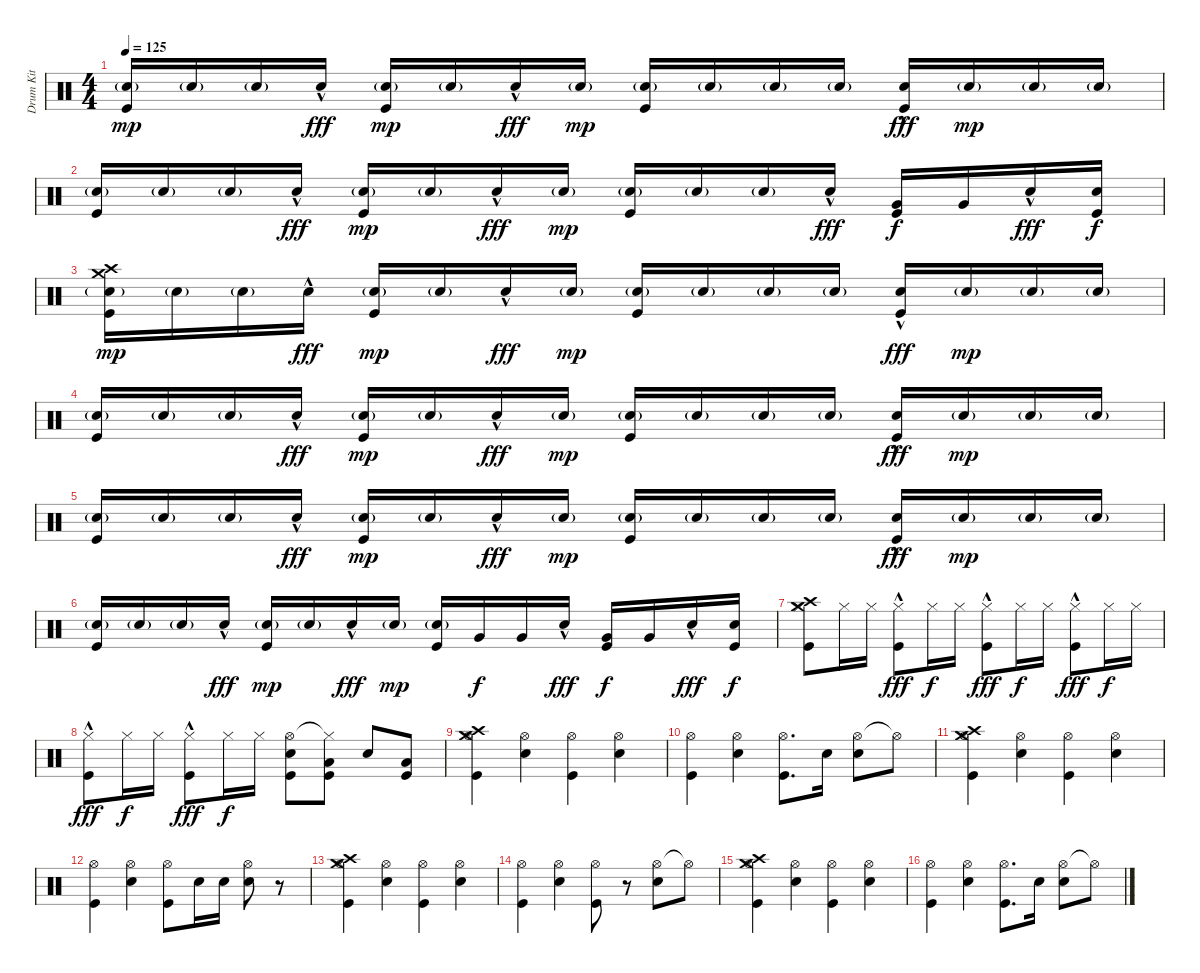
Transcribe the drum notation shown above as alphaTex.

\track ("Drum Kit" "Drum Kit") {instrument percussion}
\staff {score}
\articulation defaults
\ts (4 4)
\tempo 125
\clef neutral
\ks c
("Electric Snare (hit)"{g} "Kick (hit)").16{dy mp} "Electric Snare (hit)"{g}.16 "Electric Snare (hit)"{g}.16 "Electric Snare (hit)"{hac}.16{dy fff} ("Electric Snare (hit)"{g} "Kick (hit)").16{dy mp} "Electric Snare (hit)"{g}.16 "Electric Snare (hit)"{hac}.16{dy fff} "Electric Snare (hit)"{g}.16{dy mp} ("Electric Snare (hit)"{g} "Kick (hit)").16 "Electric Snare (hit)"{g}.16 "Electric Snare (hit)"{g}.16 "Electric Snare (hit)"{g}.16 ("Electric Snare (hit)"{hac} "Kick (hit)").16{dy fff} "Electric Snare (hit)"{g}.16{dy mp} "Electric Snare (hit)"{g}.16 "Electric Snare (hit)"{g}.16 |
("Electric Snare (hit)"{g} "Kick (hit)").16 "Electric Snare (hit)"{g}.16 "Electric Snare (hit)"{g}.16 "Electric Snare (hit)"{hac}.16{dy fff} ("Electric Snare (hit)"{g} "Kick (hit)").16{dy mp} "Electric Snare (hit)"{g}.16 "Electric Snare (hit)"{hac}.16{dy fff} "Electric Snare (hit)"{g}.16{dy mp} ("Electric Snare (hit)"{g} "Kick (hit)").16 "Electric Snare (hit)"{g}.16 "Electric Snare (hit)"{g}.16 "Electric Snare (hit)"{hac}.16{dy fff} ("Very Low Tom (hit)" "Kick (hit)").16{dy f} "Very Low Tom (hit)".16 "Electric Snare (hit)"{hac}.16{dy fff} ("Electric Snare (hit)" "Kick (hit)").16{dy f} |
("Crash high (hit)" "Crash medium (hit)" "Electric Snare (hit)"{g} "Kick (hit)").16{dy mp} "Electric Snare (hit)"{g}.16 "Electric Snare (hit)"{g}.16 "Electric Snare (hit)"{hac}.16{dy fff} ("Electric Snare (hit)"{g} "Kick (hit)").16{dy mp} "Electric Snare (hit)"{g}.16 "Electric Snare (hit)"{hac}.16{dy fff} "Electric Snare (hit)"{g}.16{dy mp} ("Electric Snare (hit)"{g} "Kick (hit)").16 "Electric Snare (hit)"{g}.16 "Electric Snare (hit)"{g}.16 "Electric Snare (hit)"{g}.16 ("Electric Snare (hit)"{hac} "Kick (hit)").16{dy fff} "Electric Snare (hit)"{g}.16{dy mp} "Electric Snare (hit)"{g}.16 "Electric Snare (hit)"{g}.16 |
("Electric Snare (hit)"{g} "Kick (hit)").16 "Electric Snare (hit)"{g}.16 "Electric Snare (hit)"{g}.16 "Electric Snare (hit)"{hac}.16{dy fff} ("Electric Snare (hit)"{g} "Kick (hit)").16{dy mp} "Electric Snare (hit)"{g}.16 "Electric Snare (hit)"{hac}.16{dy fff} "Electric Snare (hit)"{g}.16{dy mp} ("Electric Snare (hit)"{g} "Kick (hit)").16 "Electric Snare (hit)"{g}.16 "Electric Snare (hit)"{g}.16 "Electric Snare (hit)"{g}.16 ("Electric Snare (hit)"{hac} "Kick (hit)").16{dy fff} "Electric Snare (hit)"{g}.16{dy mp} "Electric Snare (hit)"{g}.16 "Electric Snare (hit)"{g}.16 |
("Electric Snare (hit)"{g} "Kick (hit)").16 "Electric Snare (hit)"{g}.16 "Electric Snare (hit)"{g}.16 "Electric Snare (hit)"{hac}.16{dy fff} ("Electric Snare (hit)"{g} "Kick (hit)").16{dy mp} "Electric Snare (hit)"{g}.16 "Electric Snare (hit)"{hac}.16{dy fff} "Electric Snare (hit)"{g}.16{dy mp} ("Electric Snare (hit)"{g} "Kick (hit)").16 "Electric Snare (hit)"{g}.16 "Electric Snare (hit)"{g}.16 "Electric Snare (hit)"{g}.16 ("Electric Snare (hit)"{hac} "Kick (hit)").16{dy fff} "Electric Snare (hit)"{g}.16{dy mp} "Electric Snare (hit)"{g}.16 "Electric Snare (hit)"{g}.16 |
("Electric Snare (hit)"{g} "Kick (hit)").16 "Electric Snare (hit)"{g}.16 "Electric Snare (hit)"{g}.16 "Electric Snare (hit)"{hac}.16{dy fff} ("Electric Snare (hit)"{g} "Kick (hit)").16{dy mp} "Electric Snare (hit)"{g}.16 "Electric Snare (hit)"{hac}.16{dy fff} "Electric Snare (hit)"{g}.16{dy mp} ("Electric Snare (hit)"{g} "Kick (hit)").16 "Very Low Tom (hit)".16{dy f} "Very Low Tom (hit)".16 "Electric Snare (hit)"{hac}.16{dy fff} ("Very Low Tom (hit)" "Kick (hit)").16{dy f} "Very Low Tom (hit)".16 "Electric Snare (hit)"{hac}.16{dy fff} ("Electric Snare (hit)" "Kick (hit)").16{dy f} |
("Crash high (hit)" "Hi-Hat (closed)" "Crash medium (hit)" "Kick (hit)").8 "Hi-Hat (closed)".16 "Hi-Hat (closed)".16 ("Hi-Hat (closed)"{hac} "Kick (hit)").8{dy fff} "Hi-Hat (closed)".16{dy f} "Hi-Hat (closed)".16 ("Hi-Hat (closed)"{hac} "Kick (hit)").8{dy fff} "Hi-Hat (closed)".16{dy f} "Hi-Hat (closed)".16 ("Hi-Hat (closed)"{hac} "Kick (hit)").8{dy fff} "Hi-Hat (closed)".16{dy f} "Hi-Hat (closed)".16 |
("Hi-Hat (closed)"{hac} "Kick (hit)").8{dy fff} "Hi-Hat (closed)".16{dy f} "Hi-Hat (closed)".16 ("Hi-Hat (closed)"{hac} "Kick (hit)").8{dy fff} "Hi-Hat (closed)".16{dy f} "Hi-Hat (closed)".16 ("Hi-Hat (open)" "Electric Snare (hit)" "Kick (hit)").8 ("Hi-Hat (closed)"{t} "Kick (hit)" "Low Floor Tom (hit)").8 "Electric Snare (hit)".8 ("Kick (hit)" "Low Floor Tom (hit)").8 |
("Crash high (hit)" "Hi-Hat (open)" "Crash medium (hit)" "Kick (hit)").4 ("Hi-Hat (open)" "Electric Snare (hit)").4 ("Hi-Hat (open)" "Kick (hit)").4 ("Hi-Hat (open)" "Electric Snare (hit)").4 |
("Hi-Hat (open)" "Kick (hit)").4 ("Hi-Hat (open)" "Electric Snare (hit)").4 ("Hi-Hat (open)" "Kick (hit)").8{d} "Electric Snare (hit)".16 ("Hi-Hat (open)" "Electric Snare (hit)").8 "Hi-Hat (open)"{t}.8 |
("Crash high (hit)" "Hi-Hat (open)" "Crash medium (hit)" "Kick (hit)").4 ("Hi-Hat (open)" "Electric Snare (hit)").4 ("Hi-Hat (open)" "Kick (hit)").4 ("Hi-Hat (open)" "Electric Snare (hit)").4 |
("Hi-Hat (open)" "Kick (hit)").4 ("Hi-Hat (open)" "Electric Snare (hit)").4 ("Hi-Hat (open)" "Kick (hit)").8 "Electric Snare (hit)".16 "Electric Snare (hit)".16 ("Hi-Hat (open)" "Electric Snare (hit)").8 r.8 |
("Crash high (hit)" "Hi-Hat (open)" "Crash medium (hit)" "Kick (hit)").4 ("Hi-Hat (open)" "Electric Snare (hit)").4 ("Hi-Hat (open)" "Kick (hit)").4 ("Hi-Hat (open)" "Electric Snare (hit)").4 |
("Hi-Hat (open)" "Kick (hit)").4 ("Hi-Hat (open)" "Electric Snare (hit)").4 ("Hi-Hat (open)" "Kick (hit)").8 r.8 ("Hi-Hat (open)" "Electric Snare (hit)").8 "Hi-Hat (open)"{t}.8 |
("Crash high (hit)" "Hi-Hat (open)" "Crash medium (hit)" "Kick (hit)").4 ("Hi-Hat (open)" "Electric Snare (hit)").4 ("Hi-Hat (open)" "Kick (hit)").4 ("Hi-Hat (open)" "Electric Snare (hit)").4 |
("Hi-Hat (open)" "Kick (hit)").4 ("Hi-Hat (open)" "Electric Snare (hit)").4 ("Hi-Hat (open)" "Kick (hit)").8{d} "Electric Snare (hit)".16 ("Hi-Hat (open)" "Electric Snare (hit)").8 "Hi-Hat (open)"{t}.8
